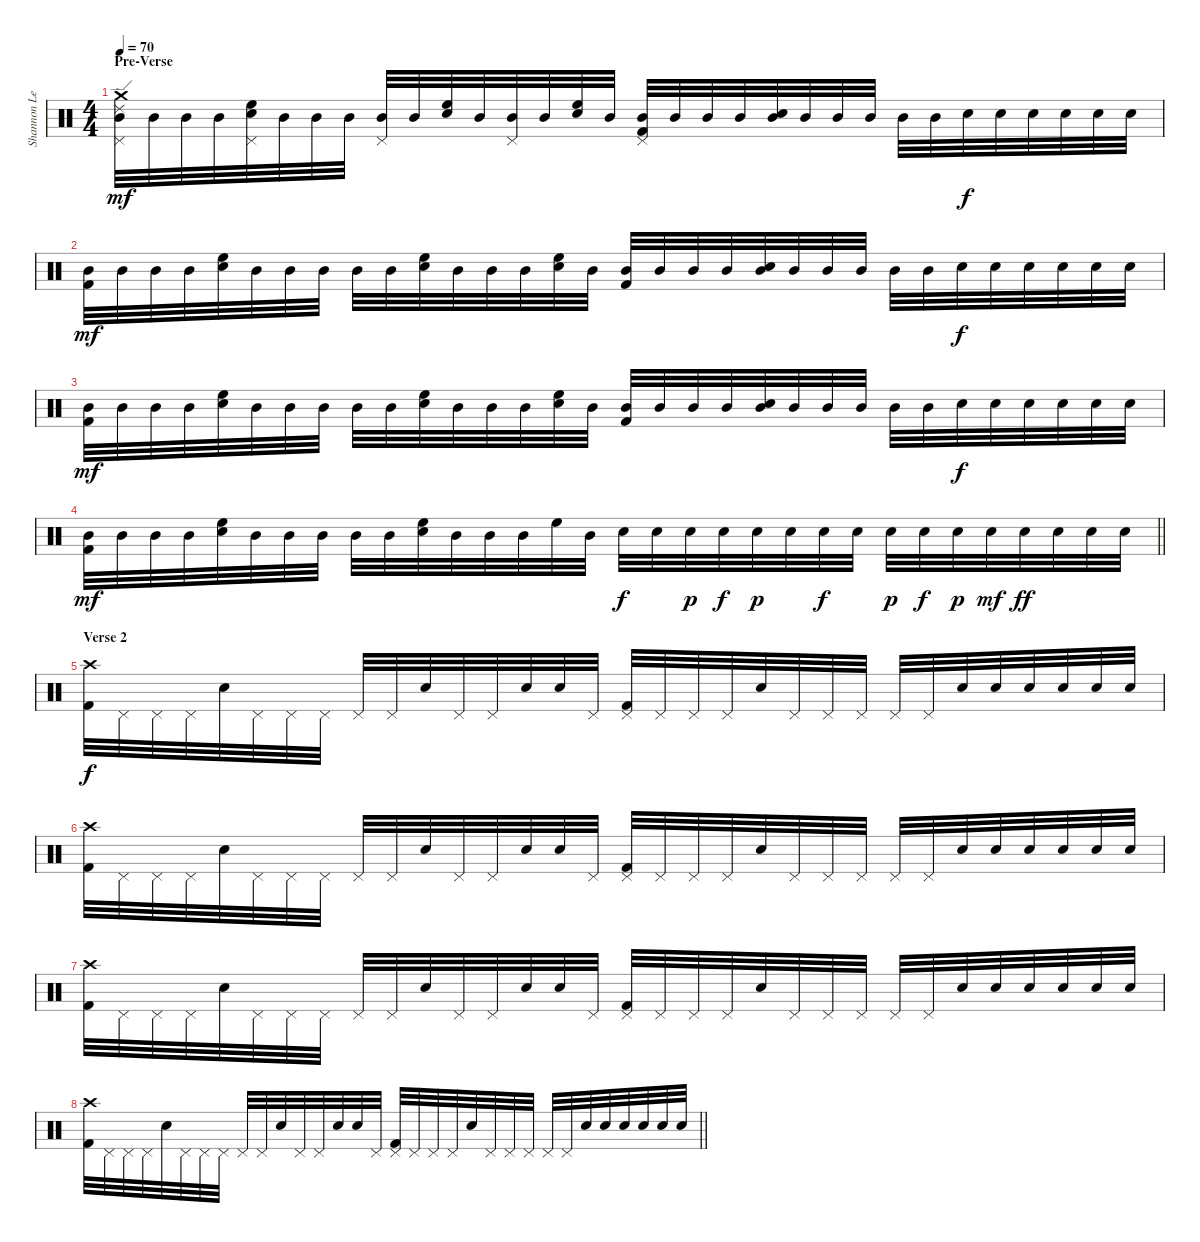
\track ("Shannon Leto - Drums" "Shannon Le") {instrument percussion}
\staff {score}
\articulation defaults
\ts (4 4)
\section ("" "Pre-Verse")
\tempo 70
\clef neutral
\ks c
("Crash medium (hit)" "Pedal Hi-Hat (hit)" "Ride (edge) 2" "Mid Tom (hit)").32{dy mf} "Mid Tom (hit)".32 "Mid Tom (hit)".32 "Mid Tom (hit)".32 ("Pedal Hi-Hat (hit)" "Electric Snare (hit)" "High Floor Tom (hit)").32 "Mid Tom (hit)".32 "Mid Tom (hit)".32 "Mid Tom (hit)".32 ("Pedal Hi-Hat (hit)" "Mid Tom (hit)").32 "Mid Tom (hit)".32 ("Electric Snare (hit)" "High Floor Tom (hit)").32 "Mid Tom (hit)".32 ("Pedal Hi-Hat (hit)" "Mid Tom (hit)").32 "Mid Tom (hit)".32 ("Electric Snare (hit)" "High Floor Tom (hit)").32 "Mid Tom (hit)".32 ("Pedal Hi-Hat (hit)" "Mid Tom (hit)" "Kick (hit) 2").32 "Mid Tom (hit)".32 "Mid Tom (hit)".32 "Mid Tom (hit)".32 ("Electric Snare (hit)" "Mid Tom (hit)").32 "Mid Tom (hit)".32 "Mid Tom (hit)".32 "Mid Tom (hit)".32 "Mid Tom (hit)".32 "Mid Tom (hit)".32 "Electric Snare (hit)".32{dy f} "Electric Snare (hit)".32 "Electric Snare (hit)".32 "Electric Snare (hit)".32 "Electric Snare (hit)".32 "Electric Snare (hit)".32 |
("Mid Tom (hit)" "Kick (hit) 2").32{dy mf} "Mid Tom (hit)".32 "Mid Tom (hit)".32 "Mid Tom (hit)".32 ("Electric Snare (hit)" "High Floor Tom (hit)").32 "Mid Tom (hit)".32 "Mid Tom (hit)".32 "Mid Tom (hit)".32 "Mid Tom (hit)".32 "Mid Tom (hit)".32 ("Electric Snare (hit)" "High Floor Tom (hit)").32 "Mid Tom (hit)".32 "Mid Tom (hit)".32 "Mid Tom (hit)".32 ("Electric Snare (hit)" "High Floor Tom (hit)").32 "Mid Tom (hit)".32 ("Mid Tom (hit)" "Kick (hit) 2").32 "Mid Tom (hit)".32 "Mid Tom (hit)".32 "Mid Tom (hit)".32 ("Electric Snare (hit)" "Mid Tom (hit)").32 "Mid Tom (hit)".32 "Mid Tom (hit)".32 "Mid Tom (hit)".32 "Mid Tom (hit)".32 "Mid Tom (hit)".32 "Electric Snare (hit)".32{dy f} "Electric Snare (hit)".32 "Electric Snare (hit)".32 "Electric Snare (hit)".32 "Electric Snare (hit)".32 "Electric Snare (hit)".32 |
("Mid Tom (hit)" "Kick (hit) 2").32{dy mf} "Mid Tom (hit)".32 "Mid Tom (hit)".32 "Mid Tom (hit)".32 ("Electric Snare (hit)" "High Floor Tom (hit)").32 "Mid Tom (hit)".32 "Mid Tom (hit)".32 "Mid Tom (hit)".32 "Mid Tom (hit)".32 "Mid Tom (hit)".32 ("Electric Snare (hit)" "High Floor Tom (hit)").32 "Mid Tom (hit)".32 "Mid Tom (hit)".32 "Mid Tom (hit)".32 ("Electric Snare (hit)" "High Floor Tom (hit)").32 "Mid Tom (hit)".32 ("Mid Tom (hit)" "Kick (hit) 2").32 "Mid Tom (hit)".32 "Mid Tom (hit)".32 "Mid Tom (hit)".32 ("Electric Snare (hit)" "Mid Tom (hit)").32 "Mid Tom (hit)".32 "Mid Tom (hit)".32 "Mid Tom (hit)".32 "Mid Tom (hit)".32 "Mid Tom (hit)".32 "Electric Snare (hit)".32{dy f} "Electric Snare (hit)".32 "Electric Snare (hit)".32 "Electric Snare (hit)".32 "Electric Snare (hit)".32 "Electric Snare (hit)".32 |
\barLineRight lightlight
("Mid Tom (hit)" "Kick (hit) 2").32{dy mf} "Mid Tom (hit)".32 "Mid Tom (hit)".32 "Mid Tom (hit)".32 ("Electric Snare (hit)" "High Floor Tom (hit)").32 "Mid Tom (hit)".32 "Mid Tom (hit)".32 "Mid Tom (hit)".32 "Mid Tom (hit)".32 "Mid Tom (hit)".32 ("Electric Snare (hit)" "High Floor Tom (hit)").32 "Mid Tom (hit)".32 "Mid Tom (hit)".32 "Mid Tom (hit)".32 "High Floor Tom (hit)".32 "Mid Tom (hit)".32 "Electric Snare (hit)".32{dy f} "Electric Snare (hit)".32 "Electric Snare (hit)".32{dy p} "Electric Snare (hit)".32{dy f} "Electric Snare (hit)".32{dy p} "Electric Snare (hit)".32 "Electric Snare (hit)".32{dy f} "Electric Snare (hit)".32 "Electric Snare (hit)".32{dy p} "Electric Snare (hit)".32{dy f} "Electric Snare (hit)".32{dy p} "Electric Snare (hit)".32{dy mf} "Electric Snare (hit)".32{dy ff} "Electric Snare (hit)".32 "Electric Snare (hit)".32 "Electric Snare (hit)".32 |
\section ("" "Verse 2")
("Crash high (hit)" "Kick (hit) 2").32{dy f} "Pedal Hi-Hat (hit)".32 "Pedal Hi-Hat (hit)".32 "Pedal Hi-Hat (hit)".32 "Electric Snare (hit)".32 "Pedal Hi-Hat (hit)".32 "Pedal Hi-Hat (hit)".32 "Pedal Hi-Hat (hit)".32 "Pedal Hi-Hat (hit)".32 "Pedal Hi-Hat (hit)".32 "Electric Snare (hit)".32 "Pedal Hi-Hat (hit)".32 "Pedal Hi-Hat (hit)".32 "Electric Snare (hit)".32 "Electric Snare (hit)".32 "Pedal Hi-Hat (hit)".32 ("Pedal Hi-Hat (hit)" "Kick (hit) 2").32 "Pedal Hi-Hat (hit)".32 "Pedal Hi-Hat (hit)".32 "Pedal Hi-Hat (hit)".32 "Electric Snare (hit)".32 "Pedal Hi-Hat (hit)".32 "Pedal Hi-Hat (hit)".32 "Pedal Hi-Hat (hit)".32 "Pedal Hi-Hat (hit)".32 "Pedal Hi-Hat (hit)".32 "Electric Snare (hit)".32 "Electric Snare (hit)".32 "Electric Snare (hit)".32 "Electric Snare (hit)".32 "Electric Snare (hit)".32 "Electric Snare (hit)".32 |
("Crash high (hit)" "Kick (hit) 2").32 "Pedal Hi-Hat (hit)".32 "Pedal Hi-Hat (hit)".32 "Pedal Hi-Hat (hit)".32 "Electric Snare (hit)".32 "Pedal Hi-Hat (hit)".32 "Pedal Hi-Hat (hit)".32 "Pedal Hi-Hat (hit)".32 "Pedal Hi-Hat (hit)".32 "Pedal Hi-Hat (hit)".32 "Electric Snare (hit)".32 "Pedal Hi-Hat (hit)".32 "Pedal Hi-Hat (hit)".32 "Electric Snare (hit)".32 "Electric Snare (hit)".32 "Pedal Hi-Hat (hit)".32 ("Pedal Hi-Hat (hit)" "Kick (hit) 2").32 "Pedal Hi-Hat (hit)".32 "Pedal Hi-Hat (hit)".32 "Pedal Hi-Hat (hit)".32 "Electric Snare (hit)".32 "Pedal Hi-Hat (hit)".32 "Pedal Hi-Hat (hit)".32 "Pedal Hi-Hat (hit)".32 "Pedal Hi-Hat (hit)".32 "Pedal Hi-Hat (hit)".32 "Electric Snare (hit)".32 "Electric Snare (hit)".32 "Electric Snare (hit)".32 "Electric Snare (hit)".32 "Electric Snare (hit)".32 "Electric Snare (hit)".32 |
("Crash high (hit)" "Kick (hit) 2").32 "Pedal Hi-Hat (hit)".32 "Pedal Hi-Hat (hit)".32 "Pedal Hi-Hat (hit)".32 "Electric Snare (hit)".32 "Pedal Hi-Hat (hit)".32 "Pedal Hi-Hat (hit)".32 "Pedal Hi-Hat (hit)".32 "Pedal Hi-Hat (hit)".32 "Pedal Hi-Hat (hit)".32 "Electric Snare (hit)".32 "Pedal Hi-Hat (hit)".32 "Pedal Hi-Hat (hit)".32 "Electric Snare (hit)".32 "Electric Snare (hit)".32 "Pedal Hi-Hat (hit)".32 ("Pedal Hi-Hat (hit)" "Kick (hit) 2").32 "Pedal Hi-Hat (hit)".32 "Pedal Hi-Hat (hit)".32 "Pedal Hi-Hat (hit)".32 "Electric Snare (hit)".32 "Pedal Hi-Hat (hit)".32 "Pedal Hi-Hat (hit)".32 "Pedal Hi-Hat (hit)".32 "Pedal Hi-Hat (hit)".32 "Pedal Hi-Hat (hit)".32 "Electric Snare (hit)".32 "Electric Snare (hit)".32 "Electric Snare (hit)".32 "Electric Snare (hit)".32 "Electric Snare (hit)".32 "Electric Snare (hit)".32 |
\barLineRight lightlight
("Crash high (hit)" "Kick (hit) 2").32 "Pedal Hi-Hat (hit)".32 "Pedal Hi-Hat (hit)".32 "Pedal Hi-Hat (hit)".32 "Electric Snare (hit)".32 "Pedal Hi-Hat (hit)".32 "Pedal Hi-Hat (hit)".32 "Pedal Hi-Hat (hit)".32 "Pedal Hi-Hat (hit)".32 "Pedal Hi-Hat (hit)".32 "Electric Snare (hit)".32 "Pedal Hi-Hat (hit)".32 "Pedal Hi-Hat (hit)".32 "Electric Snare (hit)".32 "Electric Snare (hit)".32 "Pedal Hi-Hat (hit)".32 ("Pedal Hi-Hat (hit)" "Kick (hit) 2").32 "Pedal Hi-Hat (hit)".32 "Pedal Hi-Hat (hit)".32 "Pedal Hi-Hat (hit)".32 "Electric Snare (hit)".32 "Pedal Hi-Hat (hit)".32 "Pedal Hi-Hat (hit)".32 "Pedal Hi-Hat (hit)".32 "Pedal Hi-Hat (hit)".32 "Pedal Hi-Hat (hit)".32 "Electric Snare (hit)".32 "Electric Snare (hit)".32 "Electric Snare (hit)".32 "Electric Snare (hit)".32 "Electric Snare (hit)".32 "Electric Snare (hit)".32
